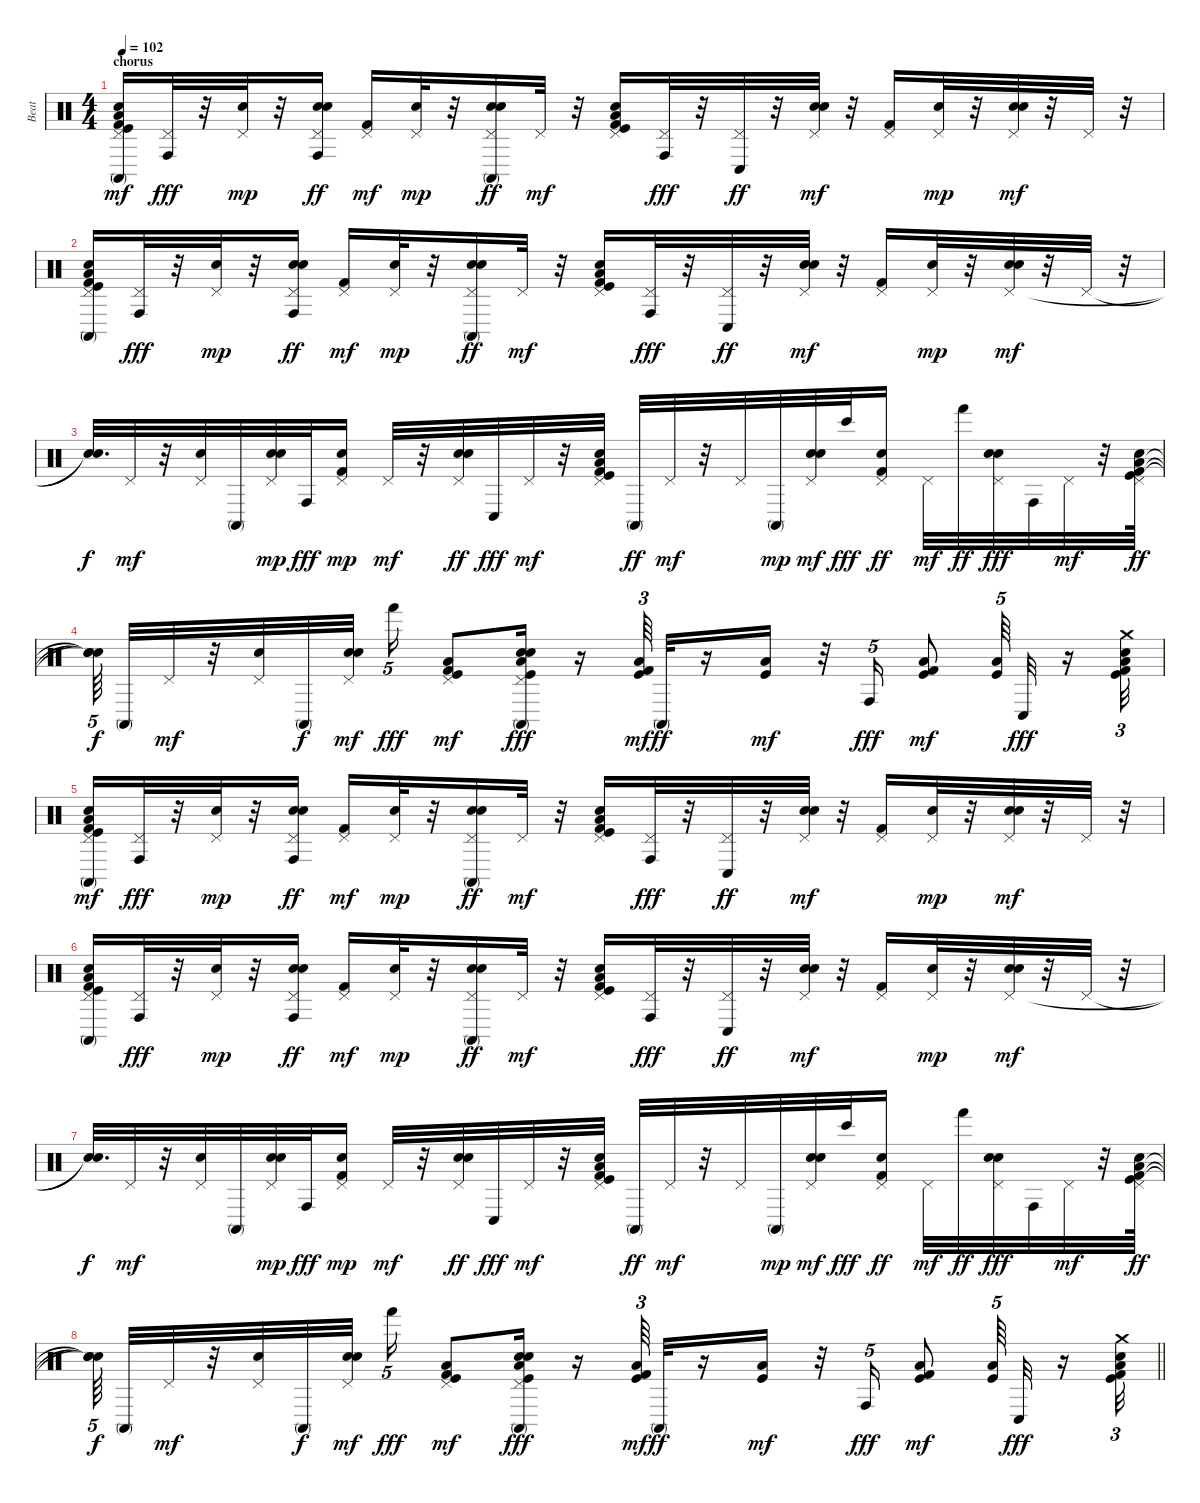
\track ("Beat" "Beat") {instrument percussion}
\staff {score}
\articulation defaults
\ts (4 4)
\section ("" "chorus")
\tempo 102
\clef neutral
\ks c
("Low Tom (hit)" "Kick (hit)" "Kick (hit) 2" "Pedal Hi-Hat (hit)" "Hand Clap (hit)" "Conga high (mute)").16{dy mf} ("Pedal Hi-Hat (hit)" "Conga high (hit)").32{dy fff} r.32 ("Pedal Hi-Hat (hit)" "Hand Clap (hit)").32{dy mp} r.32 ("Electric Snare (hit)" "Pedal Hi-Hat (hit)" "Hand Clap (hit)" "Conga high (hit)").16{dy ff} ("Kick (hit) 2" "Pedal Hi-Hat (hit)").16{dy mf} ("Pedal Hi-Hat (hit)" "Hand Clap (hit)").32{dy mp} r.32 ("Electric Snare (hit)" "Pedal Hi-Hat (hit)" "Hand Clap (hit)" "Conga high (mute)").16{dy ff} "Pedal Hi-Hat (hit)".32{dy mf} r.32 ("Low Tom (hit)" "Kick (hit)" "Kick (hit) 2" "Pedal Hi-Hat (hit)" "Hand Clap (hit)").16 ("Pedal Hi-Hat (hit)" "Conga high (hit)").32{dy fff} r.32 ("Pedal Hi-Hat (hit)" "Conga low (hit)").32{dy ff} r.32 ("Electric Snare (hit)" "Pedal Hi-Hat (hit)" "Hand Clap (hit)").32{dy mf} r.32 ("Kick (hit) 2" "Pedal Hi-Hat (hit)").16 ("Pedal Hi-Hat (hit)" "Hand Clap (hit)").32{dy mp} r.32 ("Electric Snare (hit)" "Pedal Hi-Hat (hit)" "Hand Clap (hit)").32{dy mf} r.32 "Pedal Hi-Hat (hit)".32 r.32 |
("Low Tom (hit)" "Kick (hit)" "Kick (hit) 2" "Pedal Hi-Hat (hit)" "Hand Clap (hit)" "Conga high (mute)").16 ("Pedal Hi-Hat (hit)" "Conga high (hit)").32{dy fff} r.32 ("Pedal Hi-Hat (hit)" "Hand Clap (hit)").32{dy mp} r.32 ("Electric Snare (hit)" "Pedal Hi-Hat (hit)" "Hand Clap (hit)" "Conga high (hit)").16{dy ff} ("Kick (hit) 2" "Pedal Hi-Hat (hit)").16{dy mf} ("Pedal Hi-Hat (hit)" "Hand Clap (hit)").32{dy mp} r.32 ("Electric Snare (hit)" "Pedal Hi-Hat (hit)" "Hand Clap (hit)" "Conga high (mute)").16{dy ff} "Pedal Hi-Hat (hit)".32{dy mf} r.32 ("Low Tom (hit)" "Kick (hit)" "Kick (hit) 2" "Pedal Hi-Hat (hit)" "Hand Clap (hit)").16 ("Pedal Hi-Hat (hit)" "Conga high (hit)").32{dy fff} r.32 ("Pedal Hi-Hat (hit)" "Conga low (hit)").32{dy ff} r.32 ("Electric Snare (hit)" "Pedal Hi-Hat (hit)" "Hand Clap (hit)").32{dy mf} r.32 ("Kick (hit) 2" "Pedal Hi-Hat (hit)").16 ("Pedal Hi-Hat (hit)" "Hand Clap (hit)").32{dy mp} r.32 ("Electric Snare (hit)" "Pedal Hi-Hat (hit)" "Hand Clap (hit)").32{dy mf} r.32 "Pedal Hi-Hat (hit)".32 r.32 |
("Snare (hit)"{t} "Snare (hit)"{t}).32{d dy f} "Pedal Hi-Hat (hit)".32{dy mf} r.32 ("Pedal Hi-Hat (hit)" "Hand Clap (hit)").32 "Conga high (mute)".32 ("Electric Snare (hit)" "Pedal Hi-Hat (hit)" "Hand Clap (hit)").32{dy mp} "Conga high (hit)".32{dy fff} ("Kick (hit) 2" "Pedal Hi-Hat (hit)" "Hand Clap (hit)").16{dy mp} "Pedal Hi-Hat (hit)".32{dy mf} r.32 ("Electric Snare (hit)" "Pedal Hi-Hat (hit)" "Hand Clap (hit)").32{dy ff} "Conga low (hit)".32{dy fff} "Pedal Hi-Hat (hit)".32{dy mf} r.32 ("Low Tom (hit)" "Kick (hit)" "Kick (hit) 2" "Pedal Hi-Hat (hit)" "Hand Clap (hit)").32 "Conga high (mute)".32{dy ff} "Pedal Hi-Hat (hit)".32{dy mf} r.32 "Pedal Hi-Hat (hit)".32 "Conga high (mute)".32{dy mp} ("Electric Snare (hit)" "Pedal Hi-Hat (hit)" "Hand Clap (hit)").32{dy mf} "Bongo High (hit)".32{dy fff} ("Kick (hit) 2" "Pedal Hi-Hat (hit)" "Hand Clap (hit)").16{dy ff} "Pedal Hi-Hat (hit)".32{dy mf} "Hand (hit)".32{dy ff} ("Electric Snare (hit)" "Pedal Hi-Hat (hit)" "Hand Clap (hit)").32{dy fff} "Conga high (hit)".32 "Pedal Hi-Hat (hit)".32{dy mf} r.32 ("Low Tom (hit)" "Kick (hit)" "Kick (hit) 2" "Pedal Hi-Hat (hit)" "Hand Clap (hit)").64{dy ff} |
("Snare (hit)"{t} "Snare (hit)"{t} "Snare (hit)"{t}).64{tu (5 4) dy f beam splitsecondary} "Conga high (mute)".32 "Pedal Hi-Hat (hit)".32{dy mf} r.32 ("Pedal Hi-Hat (hit)" "Hand Clap (hit)").32 "Conga high (mute)".32{dy f} ("Electric Snare (hit)" "Pedal Hi-Hat (hit)" "Hand Clap (hit)").32{dy mf beam splitsecondary} "Hand (hit)".16{tu (5 4) dy fff} ("Kick (hit)" "Low Tom (hit)" "Kick (hit) 2" "Pedal Hi-Hat (hit)").8{dy mf} ("Kick (hit)" "Low Tom (hit)" "Electric Snare (hit)" "Pedal Hi-Hat (hit)" "Hand Clap (hit)" "Conga high (mute)").16{dy fff} r.16 ("Low Tom (hit)" "Kick (hit)" "Kick (hit) 2").64{tu (3 2) dy mf} "Conga high (mute)".32{dy ff} r.16 ("Low Tom (hit)" "Kick (hit)").16{dy mf} r.32 "Conga high (hit)".16{tu (5 4) dy fff} ("Low Tom (hit)" "Kick (hit)" "Kick (hit) 2").8{dy mf} ("Low Tom (hit)" "Kick (hit)").64{tu (5 4)} "Conga low (hit)".32{dy fff} r.16 ("Low Tom (hit)" "Kick (hit)" "Kick (hit) 2" "Crash medium (hit)" "Hand Clap (hit)").32{tu (3 2)} |
("Low Tom (hit)" "Kick (hit)" "Kick (hit) 2" "Pedal Hi-Hat (hit)" "Hand Clap (hit)" "Conga high (mute)").16{dy mf} ("Pedal Hi-Hat (hit)" "Conga high (hit)").32{dy fff} r.32 ("Pedal Hi-Hat (hit)" "Hand Clap (hit)").32{dy mp} r.32 ("Electric Snare (hit)" "Pedal Hi-Hat (hit)" "Hand Clap (hit)" "Conga high (hit)").16{dy ff} ("Kick (hit) 2" "Pedal Hi-Hat (hit)").16{dy mf} ("Pedal Hi-Hat (hit)" "Hand Clap (hit)").32{dy mp} r.32 ("Electric Snare (hit)" "Pedal Hi-Hat (hit)" "Hand Clap (hit)" "Conga high (mute)").16{dy ff} "Pedal Hi-Hat (hit)".32{dy mf} r.32 ("Low Tom (hit)" "Kick (hit)" "Kick (hit) 2" "Pedal Hi-Hat (hit)" "Hand Clap (hit)").16 ("Pedal Hi-Hat (hit)" "Conga high (hit)").32{dy fff} r.32 ("Pedal Hi-Hat (hit)" "Conga low (hit)").32{dy ff} r.32 ("Electric Snare (hit)" "Pedal Hi-Hat (hit)" "Hand Clap (hit)").32{dy mf} r.32 ("Kick (hit) 2" "Pedal Hi-Hat (hit)").16 ("Pedal Hi-Hat (hit)" "Hand Clap (hit)").32{dy mp} r.32 ("Electric Snare (hit)" "Pedal Hi-Hat (hit)" "Hand Clap (hit)").32{dy mf} r.32 "Pedal Hi-Hat (hit)".32 r.32 |
("Low Tom (hit)" "Kick (hit)" "Kick (hit) 2" "Pedal Hi-Hat (hit)" "Hand Clap (hit)" "Conga high (mute)").16 ("Pedal Hi-Hat (hit)" "Conga high (hit)").32{dy fff} r.32 ("Pedal Hi-Hat (hit)" "Hand Clap (hit)").32{dy mp} r.32 ("Electric Snare (hit)" "Pedal Hi-Hat (hit)" "Hand Clap (hit)" "Conga high (hit)").16{dy ff} ("Kick (hit) 2" "Pedal Hi-Hat (hit)").16{dy mf} ("Pedal Hi-Hat (hit)" "Hand Clap (hit)").32{dy mp} r.32 ("Electric Snare (hit)" "Pedal Hi-Hat (hit)" "Hand Clap (hit)" "Conga high (mute)").16{dy ff} "Pedal Hi-Hat (hit)".32{dy mf} r.32 ("Low Tom (hit)" "Kick (hit)" "Kick (hit) 2" "Pedal Hi-Hat (hit)" "Hand Clap (hit)").16 ("Pedal Hi-Hat (hit)" "Conga high (hit)").32{dy fff} r.32 ("Pedal Hi-Hat (hit)" "Conga low (hit)").32{dy ff} r.32 ("Electric Snare (hit)" "Pedal Hi-Hat (hit)" "Hand Clap (hit)").32{dy mf} r.32 ("Kick (hit) 2" "Pedal Hi-Hat (hit)").16 ("Pedal Hi-Hat (hit)" "Hand Clap (hit)").32{dy mp} r.32 ("Electric Snare (hit)" "Pedal Hi-Hat (hit)" "Hand Clap (hit)").32{dy mf} r.32 "Pedal Hi-Hat (hit)".32 r.32 |
("Snare (hit)"{t} "Snare (hit)"{t}).32{d dy f} "Pedal Hi-Hat (hit)".32{dy mf} r.32 ("Pedal Hi-Hat (hit)" "Hand Clap (hit)").32 "Conga high (mute)".32 ("Electric Snare (hit)" "Pedal Hi-Hat (hit)" "Hand Clap (hit)").32{dy mp} "Conga high (hit)".32{dy fff} ("Kick (hit) 2" "Pedal Hi-Hat (hit)" "Hand Clap (hit)").16{dy mp} "Pedal Hi-Hat (hit)".32{dy mf} r.32 ("Electric Snare (hit)" "Pedal Hi-Hat (hit)" "Hand Clap (hit)").32{dy ff} "Conga low (hit)".32{dy fff} "Pedal Hi-Hat (hit)".32{dy mf} r.32 ("Low Tom (hit)" "Kick (hit)" "Kick (hit) 2" "Pedal Hi-Hat (hit)" "Hand Clap (hit)").32 "Conga high (mute)".32{dy ff} "Pedal Hi-Hat (hit)".32{dy mf} r.32 "Pedal Hi-Hat (hit)".32 "Conga high (mute)".32{dy mp} ("Electric Snare (hit)" "Pedal Hi-Hat (hit)" "Hand Clap (hit)").32{dy mf} "Bongo High (hit)".32{dy fff} ("Kick (hit) 2" "Pedal Hi-Hat (hit)" "Hand Clap (hit)").16{dy ff} "Pedal Hi-Hat (hit)".32{dy mf} "Hand (hit)".32{dy ff} ("Electric Snare (hit)" "Pedal Hi-Hat (hit)" "Hand Clap (hit)").32{dy fff} "Conga high (hit)".32 "Pedal Hi-Hat (hit)".32{dy mf} r.32 ("Low Tom (hit)" "Kick (hit)" "Kick (hit) 2" "Pedal Hi-Hat (hit)" "Hand Clap (hit)").64{dy ff} |
\barLineRight lightlight
("Snare (hit)"{t} "Snare (hit)"{t} "Snare (hit)"{t}).64{tu (5 4) dy f beam splitsecondary} "Conga high (mute)".32 "Pedal Hi-Hat (hit)".32{dy mf} r.32 ("Pedal Hi-Hat (hit)" "Hand Clap (hit)").32 "Conga high (mute)".32{dy f} ("Electric Snare (hit)" "Pedal Hi-Hat (hit)" "Hand Clap (hit)").32{dy mf beam splitsecondary} "Hand (hit)".16{tu (5 4) dy fff} ("Kick (hit)" "Low Tom (hit)" "Kick (hit) 2" "Pedal Hi-Hat (hit)").8{dy mf} ("Kick (hit)" "Low Tom (hit)" "Electric Snare (hit)" "Pedal Hi-Hat (hit)" "Hand Clap (hit)" "Conga high (mute)").16{dy fff} r.16 ("Low Tom (hit)" "Kick (hit)" "Kick (hit) 2").64{tu (3 2) dy mf} "Conga high (mute)".32{dy ff} r.16 ("Low Tom (hit)" "Kick (hit)").16{dy mf} r.32 "Conga high (hit)".16{tu (5 4) dy fff} ("Low Tom (hit)" "Kick (hit)" "Kick (hit) 2").8{dy mf} ("Low Tom (hit)" "Kick (hit)").64{tu (5 4)} "Conga low (hit)".32{dy fff} r.16 ("Low Tom (hit)" "Kick (hit)" "Kick (hit) 2" "Crash medium (hit)" "Hand Clap (hit)").32{tu (3 2)}
